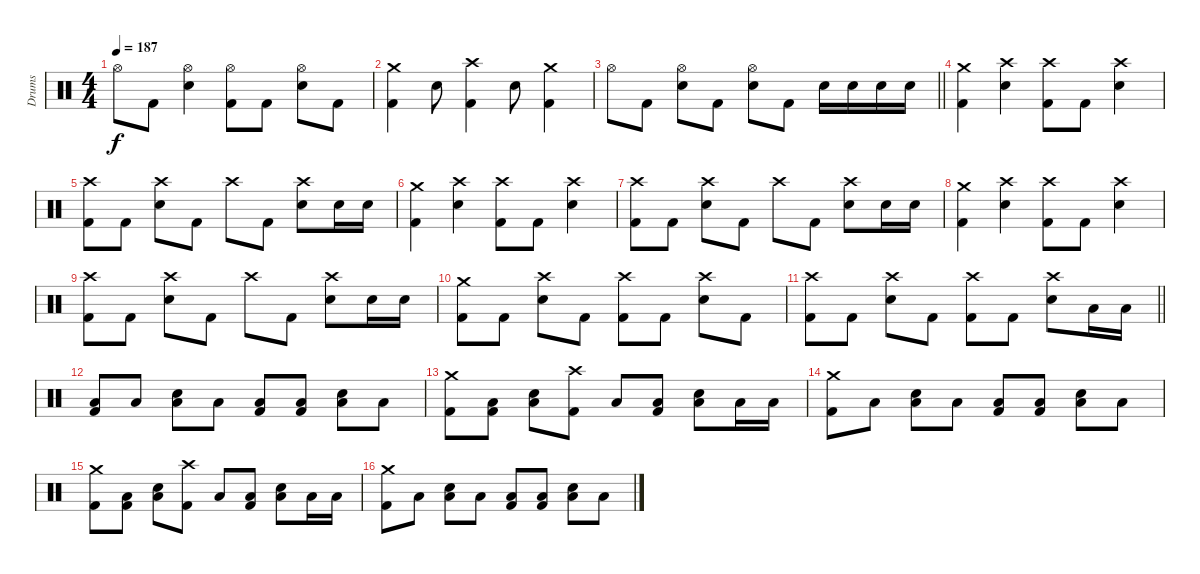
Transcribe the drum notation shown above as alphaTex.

\track ("Drums" "Drums") {instrument percussion}
\staff {score}
\articulation defaults
\ts (4 4)
\tempo 187
\clef neutral
\ks c "Hi-Hat (open)".8{dy f} "Kick (hit) 2".8
("Hi-Hat (open)" "Electric Snare (hit)").4 ("Hi-Hat (open)" "Kick (hit) 2").8 "Kick (hit) 2".8 ("Hi-Hat (open)" "Electric Snare (hit)").8 "Kick (hit) 2".8 |
("Crash medium (hit)" "Kick (hit) 2").4 "Electric Snare (hit)".8 ("Crash high (hit)" "Kick (hit) 2").4 "Electric Snare (hit)".8 ("Crash medium (hit)" "Kick (hit) 2").4 |
\barLineRight lightlight "Hi-Hat (open)".8 "Kick (hit) 2".8
("Hi-Hat (open)" "Electric Snare (hit)").8 "Kick (hit) 2".8 ("Hi-Hat (open)" "Electric Snare (hit)").8 "Kick (hit) 2".8 "Electric Snare (hit)".16 "Electric Snare (hit)".16 "Electric Snare (hit)".16 "Electric Snare (hit)".16 |
("Crash medium (hit)" "Kick (hit) 2").4 ("Crash high (hit)" "Electric Snare (hit)").4 ("Crash high (hit)" "Kick (hit) 2").8 "Kick (hit) 2".8 ("Crash high (hit)" "Electric Snare (hit)").4 |
("Crash high (hit)" "Kick (hit) 2").8 "Kick (hit) 2".8 ("Crash high (hit)" "Electric Snare (hit)").8 "Kick (hit) 2".8 "Crash high (hit)".8 "Kick (hit) 2".8 ("Crash high (hit)" "Electric Snare (hit)").8 "Electric Snare (hit)".16 "Electric Snare (hit)".16 |
("Crash medium (hit)" "Kick (hit) 2").4 ("Crash high (hit)" "Electric Snare (hit)").4 ("Crash high (hit)" "Kick (hit) 2").8 "Kick (hit) 2".8 ("Crash high (hit)" "Electric Snare (hit)").4 |
("Crash high (hit)" "Kick (hit) 2").8 "Kick (hit) 2".8 ("Crash high (hit)" "Electric Snare (hit)").8 "Kick (hit) 2".8 "Crash high (hit)".8 "Kick (hit) 2".8 ("Crash high (hit)" "Electric Snare (hit)").8 "Electric Snare (hit)".16 "Electric Snare (hit)".16 |
("Crash medium (hit)" "Kick (hit) 2").4 ("Crash high (hit)" "Electric Snare (hit)").4 ("Crash high (hit)" "Kick (hit) 2").8 "Kick (hit) 2".8 ("Crash high (hit)" "Electric Snare (hit)").4 |
("Crash high (hit)" "Kick (hit) 2").8 "Kick (hit) 2".8 ("Crash high (hit)" "Electric Snare (hit)").8 "Kick (hit) 2".8 "Crash high (hit)".8 "Kick (hit) 2".8 ("Crash high (hit)" "Electric Snare (hit)").8 "Electric Snare (hit)".16 "Electric Snare (hit)".16 |
("Crash medium (hit)" "Kick (hit) 2").8 "Kick (hit) 2".8 ("Crash high (hit)" "Electric Snare (hit)").8 "Kick (hit) 2".8 ("Crash high (hit)" "Kick (hit) 2").8 "Kick (hit) 2".8 ("Crash high (hit)" "Electric Snare (hit)").8 "Kick (hit) 2".8 |
\barLineRight lightlight
("Crash high (hit)" "Kick (hit) 2").8 "Kick (hit) 2".8 ("Crash high (hit)" "Electric Snare (hit)").8 "Kick (hit) 2".8 ("Crash high (hit)" "Kick (hit) 2").8 "Kick (hit) 2".8 ("Crash high (hit)" "Electric Snare (hit)").8 "Low Floor Tom (hit)".16 "Low Floor Tom (hit)".16 |
("Low Floor Tom (hit)" "Kick (hit) 2").8 "Low Floor Tom (hit)".8 ("Electric Snare (hit)" "Low Floor Tom (hit)").8 "Low Floor Tom (hit)".8 ("Low Floor Tom (hit)" "Kick (hit) 2").8 ("Low Floor Tom (hit)" "Kick (hit) 2").8 ("Electric Snare (hit)" "Low Floor Tom (hit)").8 "Low Floor Tom (hit)".8 |
("Crash medium (hit)" "Kick (hit) 2").8 ("Low Floor Tom (hit)" "Kick (hit) 2").8 ("Electric Snare (hit)" "Low Floor Tom (hit)").8 ("Crash high (hit)" "Kick (hit) 2").8 "Low Floor Tom (hit)".8 ("Low Floor Tom (hit)" "Kick (hit) 2").8 ("Electric Snare (hit)" "Low Floor Tom (hit)").8 "Low Floor Tom (hit)".16 "Low Floor Tom (hit)".16 |
("Crash medium (hit)" "Kick (hit) 2").8 "Low Floor Tom (hit)".8 ("Electric Snare (hit)" "Low Floor Tom (hit)").8 "Low Floor Tom (hit)".8 ("Low Floor Tom (hit)" "Kick (hit) 2").8 ("Low Floor Tom (hit)" "Kick (hit) 2").8 ("Electric Snare (hit)" "Low Floor Tom (hit)").8 "Low Floor Tom (hit)".8 |
("Crash medium (hit)" "Kick (hit) 2").8 ("Low Floor Tom (hit)" "Kick (hit) 2").8 ("Electric Snare (hit)" "Low Floor Tom (hit)").8 ("Crash high (hit)" "Kick (hit) 2").8 "Low Floor Tom (hit)".8 ("Low Floor Tom (hit)" "Kick (hit) 2").8 ("Electric Snare (hit)" "Low Floor Tom (hit)").8 "Low Floor Tom (hit)".16 "Low Floor Tom (hit)".16 |
("Crash medium (hit)" "Kick (hit) 2").8 "Low Floor Tom (hit)".8 ("Electric Snare (hit)" "Low Floor Tom (hit)").8 "Low Floor Tom (hit)".8 ("Low Floor Tom (hit)" "Kick (hit) 2").8 ("Low Floor Tom (hit)" "Kick (hit) 2").8 ("Electric Snare (hit)" "Low Floor Tom (hit)").8 "Low Floor Tom (hit)".8
